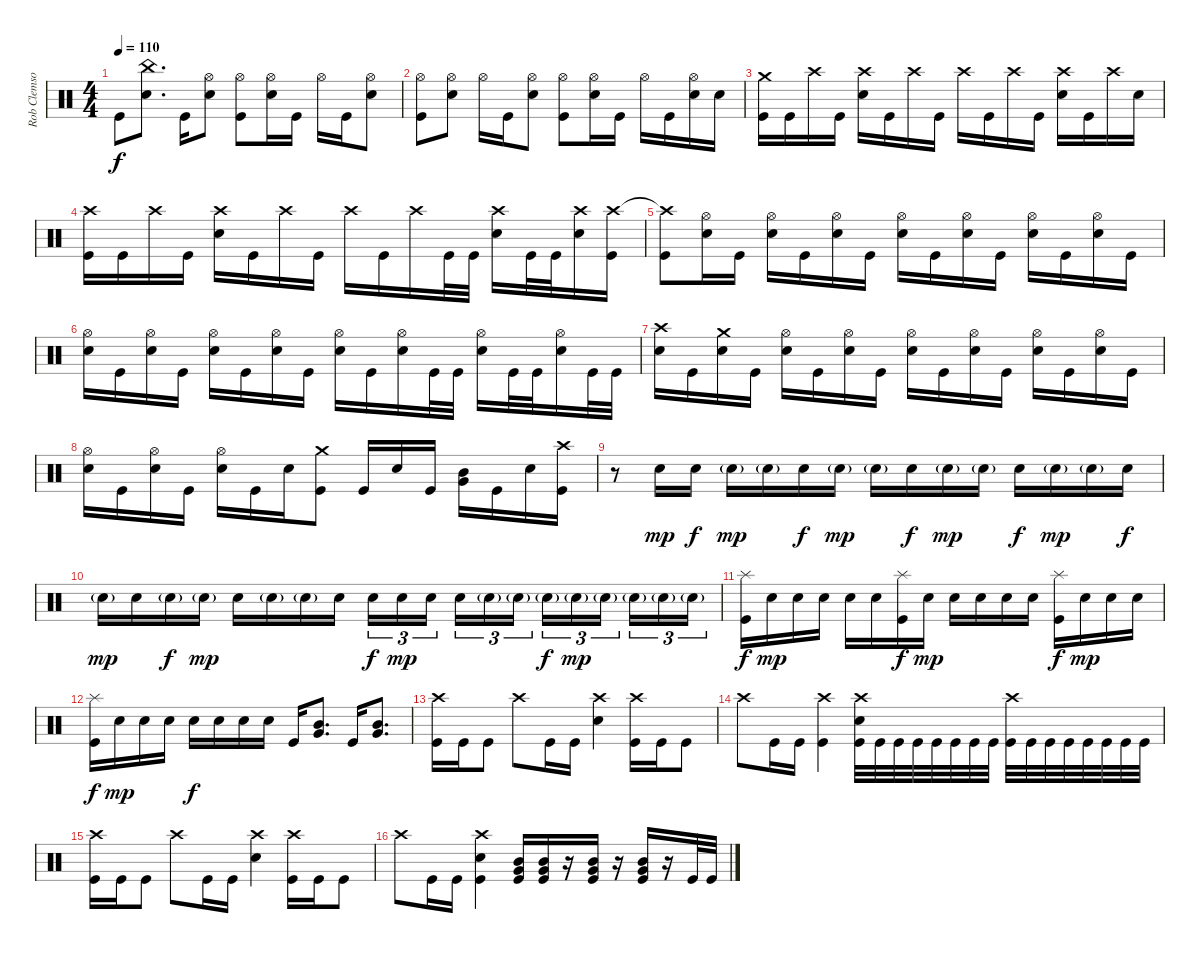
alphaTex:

\track ("Rob Clemson" "Rob Clemso") {instrument percussion}
\staff {score}
\articulation defaults
\ts (4 4)
\tempo 110
\clef neutral
\ks c "Kick (hit)".8{dy f}
("Electric Snare (hit)" "China (hit)").8{d} "Kick (hit)".16 ("Hi-Hat (open)" "Electric Snare (hit)").8 ("Hi-Hat (open)" "Kick (hit)").8 ("Hi-Hat (open)" "Electric Snare (hit)").16 "Kick (hit)".16 "Hi-Hat (open)".16 "Kick (hit)".16 ("Hi-Hat (open)" "Electric Snare (hit)").8 |
("Hi-Hat (open)" "Kick (hit)").8 ("Hi-Hat (open)" "Electric Snare (hit)").8 "Hi-Hat (open)".16 "Kick (hit)".16 ("Hi-Hat (open)" "Electric Snare (hit)").8 ("Hi-Hat (open)" "Kick (hit)").8 ("Hi-Hat (open)" "Electric Snare (hit)").16 "Kick (hit)".16 "Hi-Hat (open)".16 "Kick (hit)".16 ("Hi-Hat (open)" "Electric Snare (hit)").16 "Electric Snare (hit)".16 |
("Crash medium (hit)" "Kick (hit)").16 "Kick (hit)".16 "Crash high (hit)".16 "Kick (hit)".16 ("Crash high (hit)" "Electric Snare (hit)").16 "Kick (hit)".16 "Crash high (hit)".16 "Kick (hit)".16 "Crash high (hit)".16 "Kick (hit)".16 "Crash high (hit)".16 "Kick (hit)".16 ("Crash high (hit)" "Electric Snare (hit)").16 "Kick (hit)".16 "Crash high (hit)".16 "Electric Snare (hit)".16 |
("Crash high (hit)" "Kick (hit)").16 "Kick (hit)".16 "Crash high (hit)".16 "Kick (hit)".16 ("Crash high (hit)" "Electric Snare (hit)").16 "Kick (hit)".16 "Crash high (hit)".16 "Kick (hit)".16 "Crash high (hit)".16 "Kick (hit)".16 "Crash high (hit)".16 "Kick (hit)".32 "Kick (hit)".32 ("Crash high (hit)" "Electric Snare (hit)").16 "Kick (hit)".32 "Kick (hit)".32 ("Crash high (hit)" "Electric Snare (hit)").16 ("Kick (hit)" "Crash high (hit)").16 |
("Kick (hit)" "Crash high (hit)"{t}).8 ("Electric Snare (hit)" "Hi-Hat (open)").16 "Kick (hit)".16 ("Electric Snare (hit)" "Hi-Hat (open)").16 "Kick (hit)".16 ("Electric Snare (hit)" "Hi-Hat (open)").16 "Kick (hit)".16 ("Electric Snare (hit)" "Hi-Hat (open)").16 "Kick (hit)".16 ("Electric Snare (hit)" "Hi-Hat (open)").16 "Kick (hit)".16 ("Electric Snare (hit)" "Hi-Hat (open)").16 "Kick (hit)".16 ("Electric Snare (hit)" "Hi-Hat (open)").16 "Kick (hit)".16 |
("Electric Snare (hit)" "Hi-Hat (open)").16 "Kick (hit)".16 ("Electric Snare (hit)" "Hi-Hat (open)").16 "Kick (hit)".16 ("Electric Snare (hit)" "Hi-Hat (open)").16 "Kick (hit)".16 ("Electric Snare (hit)" "Hi-Hat (open)").16 "Kick (hit)".16 ("Electric Snare (hit)" "Hi-Hat (open)").16 "Kick (hit)".16 ("Electric Snare (hit)" "Hi-Hat (open)").16 "Kick (hit)".32 "Kick (hit)".32 ("Electric Snare (hit)" "Hi-Hat (open)").16 "Kick (hit)".32 "Kick (hit)".32 ("Electric Snare (hit)" "Hi-Hat (open)").16 "Kick (hit)".32 "Kick (hit)".32 |
("Electric Snare (hit)" "Crash high (hit)").16 "Kick (hit)".16 ("Electric Snare (hit)" "Crash medium (hit)").16 "Kick (hit)".16 ("Electric Snare (hit)" "Hi-Hat (open)").16 "Kick (hit)".16 ("Electric Snare (hit)" "Hi-Hat (open)").16 "Kick (hit)".16 ("Electric Snare (hit)" "Hi-Hat (open)").16 "Kick (hit)".16 ("Electric Snare (hit)" "Hi-Hat (open)").16 "Kick (hit)".16 ("Electric Snare (hit)" "Hi-Hat (open)").16 "Kick (hit)".16 ("Electric Snare (hit)" "Hi-Hat (open)").16 "Kick (hit)".16 |
("Electric Snare (hit)" "Hi-Hat (open)").16 "Kick (hit)".16 ("Electric Snare (hit)" "Hi-Hat (open)").16 "Kick (hit)".16 ("Electric Snare (hit)" "Hi-Hat (open)").16 "Kick (hit)".16 "Electric Snare (hit)".16 ("Kick (hit)" "Crash medium (hit)").8 "Kick (hit)".16 "Electric Snare (hit)".16 "Kick (hit)".16 ("Mid Tom (hit)" "Very Low Tom (hit)").16 "Kick (hit)".16 "Electric Snare (hit)".16 ("Kick (hit)" "Crash high (hit)").16 |
r.8 "Electric Snare (hit)".16{dy mp} "Electric Snare (hit)".16{dy f} "Electric Snare (hit)"{g}.16{dy mp} "Electric Snare (hit)"{g}.16 "Electric Snare (hit)".16{dy f} "Electric Snare (hit)"{g}.16{dy mp} "Electric Snare (hit)"{g}.16 "Electric Snare (hit)".16{dy f} "Electric Snare (hit)"{g}.16{dy mp} "Electric Snare (hit)"{g}.16 "Electric Snare (hit)".16{dy f} "Electric Snare (hit)"{g}.16{dy mp} "Electric Snare (hit)"{g}.16 "Electric Snare (hit)".16{dy f} |
"Electric Snare (hit)"{g}.16{dy mp} "Electric Snare (hit)".16 "Electric Snare (hit)"{g}.16{dy f} "Electric Snare (hit)"{g}.16{dy mp} "Electric Snare (hit)".16 "Electric Snare (hit)"{g}.16 "Electric Snare (hit)"{g}.16 "Electric Snare (hit)".16 "Electric Snare (hit)".16{tu (3 2) dy f} "Electric Snare (hit)".16{tu (3 2) dy mp} "Electric Snare (hit)".16{tu (3 2) beam splitsecondary} "Electric Snare (hit)".16{tu (3 2)} "Electric Snare (hit)"{g}.16{tu (3 2)} "Electric Snare (hit)"{g}.16{tu (3 2)} "Electric Snare (hit)"{g}.16{tu (3 2) dy f} "Electric Snare (hit)"{g}.16{tu (3 2) dy mp} "Electric Snare (hit)"{g}.16{tu (3 2) beam splitsecondary} "Electric Snare (hit)"{g}.16{tu (3 2)} "Electric Snare (hit)"{g}.16{tu (3 2)} "Electric Snare (hit)"{g}.16{tu (3 2)} |
("Kick (hit)" "Splash (hit)").16{dy f} "Electric Snare (hit)".16{dy mp} "Electric Snare (hit)".16 "Electric Snare (hit)".16 "Electric Snare (hit)".16 "Electric Snare (hit)".16 ("Kick (hit)" "Splash (hit)").16{dy f} "Electric Snare (hit)".16{dy mp} "Electric Snare (hit)".16 "Electric Snare (hit)".16 "Electric Snare (hit)".16 "Electric Snare (hit)".16 ("Kick (hit)" "Splash (hit)").16{dy f} "Electric Snare (hit)".16{dy mp} "Electric Snare (hit)".16 "Electric Snare (hit)".16 |
("Kick (hit)" "Splash (hit)").16{dy f} "Electric Snare (hit)".16{dy mp} "Electric Snare (hit)".16 "Electric Snare (hit)".16 "Electric Snare (hit)".16{dy f} "Electric Snare (hit)".16 "Electric Snare (hit)".16 "Electric Snare (hit)".16 "Kick (hit)".16 ("Mid Tom (hit)" "Very Low Tom (hit)").8{d} "Kick (hit)".16 ("Very Low Tom (hit)" "Mid Tom (hit)").8{d} |
("Kick (hit)" "Crash high (hit)").16 "Kick (hit)".16 "Kick (hit)".8 "Crash high (hit)".8 "Kick (hit)".16 "Kick (hit)".16 ("Crash high (hit)" "Electric Snare (hit)").4 ("Kick (hit)" "Crash high (hit)").16 "Kick (hit)".16 "Kick (hit)".8 |
"Crash high (hit)".8 "Kick (hit)".16 "Kick (hit)".16 ("Kick (hit)" "Crash high (hit)").4 ("Crash high (hit)" "Electric Snare (hit)" "Kick (hit)").32 "Kick (hit)".32 "Kick (hit)".32 "Kick (hit)".32 "Kick (hit)".32 "Kick (hit)".32 "Kick (hit)".32 "Kick (hit)".32 ("Crash high (hit)" "Kick (hit)").32 "Kick (hit)".32 "Kick (hit)".32 "Kick (hit)".32 "Kick (hit)".32 "Kick (hit)".32 "Kick (hit)".32 "Kick (hit)".32 |
("Kick (hit)" "Crash high (hit)").16 "Kick (hit)".16 "Kick (hit)".8 "Crash high (hit)".8 "Kick (hit)".16 "Kick (hit)".16 ("Crash high (hit)" "Electric Snare (hit)").4 ("Kick (hit)" "Crash high (hit)").16 "Kick (hit)".16 "Kick (hit)".8 |
"Crash high (hit)".8 "Kick (hit)".16 "Kick (hit)".16 ("Kick (hit)" "Crash high (hit)" "Electric Snare (hit)").4 ("Kick (hit)" "Very Low Tom (hit)" "Mid Tom (hit)").16 ("Kick (hit)" "Very Low Tom (hit)" "Mid Tom (hit)").16 r.16 ("Kick (hit)" "Very Low Tom (hit)" "Mid Tom (hit)").16 r.16 ("Kick (hit)" "Very Low Tom (hit)" "Mid Tom (hit)").16 r.16 "Kick (hit)".32 "Kick (hit)".32
